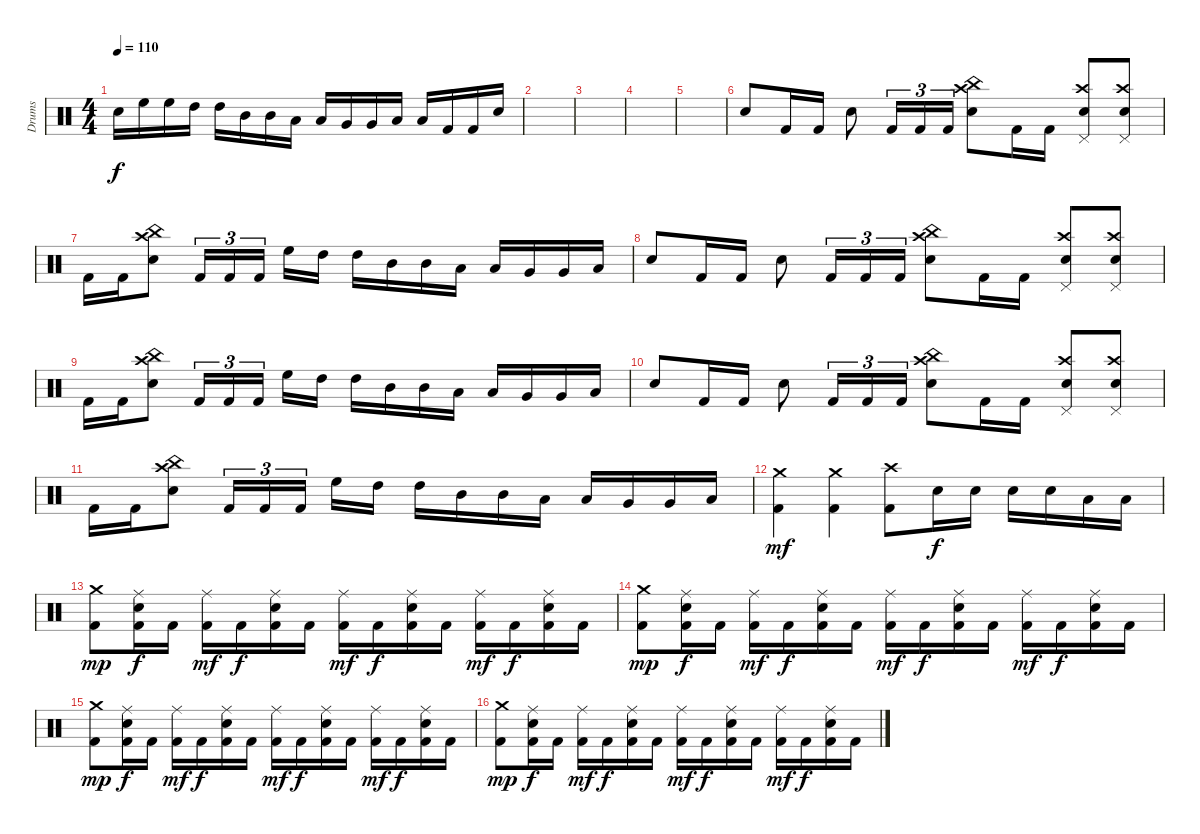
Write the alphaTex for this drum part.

\track ("Drums" "Drums") {instrument percussion}
\staff {score}
\articulation defaults
\ts (4 4)
\tempo 110
\clef neutral
\ks c "Electric Snare (hit)".16{dy f} "High Floor Tom (hit)".16 "High Floor Tom (hit)".16 "High Tom (hit)".16 "High Tom (hit)".16 "Mid Tom (hit)".16 "Mid Tom (hit)".16 "Low Tom (hit)".16 "Low Tom (hit)".16 "Very Low Tom (hit)".16 "Very Low Tom (hit)".16 "Low Floor Tom (hit)".16 "Low Floor Tom (hit)".16 "Kick (hit) 2".16 "Kick (hit) 2".16 "Electric Snare (hit)".16
|
|
|
|
|
"Snare (hit) 2".8 "Kick (hit) 2".16 "Kick (hit) 2".16 "Snare (hit) 2".8 "Kick (hit) 2".16{tu (3 2)} "Kick (hit) 2".16{tu (3 2)} "Kick (hit) 2".16{tu (3 2)} ("Crash high (hit)" "China (hit)" "Snare (hit) 2").8 "Kick (hit) 2".16 "Kick (hit) 2".16 ("Snare (hit) 2" "Crash high (hit)" "Pedal Hi-Hat (hit)").8 ("Snare (hit) 2" "Crash high (hit)" "Pedal Hi-Hat (hit)").8 |
"Kick (hit) 2".16 "Kick (hit) 2".16 ("Crash high (hit)" "Snare (hit) 2" "China (hit)").8 "Kick (hit) 2".16{tu (3 2)} "Kick (hit) 2".16{tu (3 2)} "Kick (hit) 2".16{tu (3 2)} "High Floor Tom (hit)".16 "High Tom (hit)".16 "High Tom (hit)".16 "Mid Tom (hit)".16 "Mid Tom (hit)".16 "Low Tom (hit)".16 "Low Tom (hit)".16 "Very Low Tom (hit)".16 "Very Low Tom (hit)".16 "Low Floor Tom (hit)".16 |
"Snare (hit) 2".8 "Kick (hit) 2".16 "Kick (hit) 2".16 "Snare (hit) 2".8 "Kick (hit) 2".16{tu (3 2)} "Kick (hit) 2".16{tu (3 2)} "Kick (hit) 2".16{tu (3 2)} ("Crash high (hit)" "China (hit)" "Snare (hit) 2").8 "Kick (hit) 2".16 "Kick (hit) 2".16 ("Snare (hit) 2" "Crash high (hit)" "Pedal Hi-Hat (hit)").8 ("Snare (hit) 2" "Crash high (hit)" "Pedal Hi-Hat (hit)").8 |
"Kick (hit) 2".16 "Kick (hit) 2".16 ("Crash high (hit)" "Snare (hit) 2" "China (hit)").8 "Kick (hit) 2".16{tu (3 2)} "Kick (hit) 2".16{tu (3 2)} "Kick (hit) 2".16{tu (3 2)} "High Floor Tom (hit)".16 "High Tom (hit)".16 "High Tom (hit)".16 "Mid Tom (hit)".16 "Mid Tom (hit)".16 "Low Tom (hit)".16 "Low Tom (hit)".16 "Very Low Tom (hit)".16 "Very Low Tom (hit)".16 "Low Floor Tom (hit)".16 |
"Snare (hit) 2".8 "Kick (hit) 2".16 "Kick (hit) 2".16 "Snare (hit) 2".8 "Kick (hit) 2".16{tu (3 2)} "Kick (hit) 2".16{tu (3 2)} "Kick (hit) 2".16{tu (3 2)} ("Crash high (hit)" "China (hit)" "Snare (hit) 2").8 "Kick (hit) 2".16 "Kick (hit) 2".16 ("Snare (hit) 2" "Crash high (hit)" "Pedal Hi-Hat (hit)").8 ("Snare (hit) 2" "Crash high (hit)" "Pedal Hi-Hat (hit)").8 |
"Kick (hit) 2".16 "Kick (hit) 2".16 ("Crash high (hit)" "Snare (hit) 2" "China (hit)").8 "Kick (hit) 2".16{tu (3 2)} "Kick (hit) 2".16{tu (3 2)} "Kick (hit) 2".16{tu (3 2)} "High Floor Tom (hit)".16 "High Tom (hit)".16 "High Tom (hit)".16 "Mid Tom (hit)".16 "Mid Tom (hit)".16 "Low Tom (hit)".16 "Low Tom (hit)".16 "Very Low Tom (hit)".16 "Very Low Tom (hit)".16 "Low Floor Tom (hit)".16 |
("Crash medium (hit)" "Kick (hit) 2").4{dy mf} ("Crash medium (hit)" "Kick (hit) 2").4 ("Crash high (hit)" "Kick (hit) 2").8 "Electric Snare (hit)".16{dy f} "Electric Snare (hit)".16 "Electric Snare (hit)".16 "Electric Snare (hit)".16 "Low Tom (hit)".16 "Low Tom (hit)".16 |
("Crash medium (hit)" "Kick (hit) 2").8{dy mp} ("Ride (middle)" "Electric Snare (hit)" "Kick (hit) 2").16{dy f} "Kick (hit) 2".16 ("Ride (middle)" "Kick (hit) 2").16{dy mf} "Kick (hit) 2".16{dy f} ("Ride (middle)" "Electric Snare (hit)" "Kick (hit) 2").16 "Kick (hit) 2".16 ("Ride (middle)" "Kick (hit) 2").16{dy mf} "Kick (hit) 2".16{dy f} ("Ride (middle)" "Electric Snare (hit)" "Kick (hit) 2").16 "Kick (hit) 2".16 ("Ride (middle)" "Kick (hit) 2").16{dy mf} "Kick (hit) 2".16{dy f} ("Ride (middle)" "Electric Snare (hit)" "Kick (hit) 2").16 "Kick (hit) 2".16 |
("Crash medium (hit)" "Kick (hit) 2").8{dy mp} ("Ride (middle)" "Electric Snare (hit)" "Kick (hit) 2").16{dy f} "Kick (hit) 2".16 ("Ride (middle)" "Kick (hit) 2").16{dy mf} "Kick (hit) 2".16{dy f} ("Ride (middle)" "Electric Snare (hit)" "Kick (hit) 2").16 "Kick (hit) 2".16 ("Ride (middle)" "Kick (hit) 2").16{dy mf} "Kick (hit) 2".16{dy f} ("Ride (middle)" "Electric Snare (hit)" "Kick (hit) 2").16 "Kick (hit) 2".16 ("Ride (middle)" "Kick (hit) 2").16{dy mf} "Kick (hit) 2".16{dy f} ("Ride (middle)" "Electric Snare (hit)" "Kick (hit) 2").16 "Kick (hit) 2".16 |
("Crash medium (hit)" "Kick (hit) 2").8{dy mp} ("Ride (middle)" "Electric Snare (hit)" "Kick (hit) 2").16{dy f} "Kick (hit) 2".16 ("Ride (middle)" "Kick (hit) 2").16{dy mf} "Kick (hit) 2".16{dy f} ("Ride (middle)" "Electric Snare (hit)" "Kick (hit) 2").16 "Kick (hit) 2".16 ("Ride (middle)" "Kick (hit) 2").16{dy mf} "Kick (hit) 2".16{dy f} ("Ride (middle)" "Electric Snare (hit)" "Kick (hit) 2").16 "Kick (hit) 2".16 ("Ride (middle)" "Kick (hit) 2").16{dy mf} "Kick (hit) 2".16{dy f} ("Ride (middle)" "Electric Snare (hit)" "Kick (hit) 2").16 "Kick (hit) 2".16 |
("Crash medium (hit)" "Kick (hit) 2").8{dy mp} ("Ride (middle)" "Electric Snare (hit)" "Kick (hit) 2").16{dy f} "Kick (hit) 2".16 ("Ride (middle)" "Kick (hit) 2").16{dy mf} "Kick (hit) 2".16{dy f} ("Ride (middle)" "Electric Snare (hit)" "Kick (hit) 2").16 "Kick (hit) 2".16 ("Ride (middle)" "Kick (hit) 2").16{dy mf} "Kick (hit) 2".16{dy f} ("Ride (middle)" "Electric Snare (hit)" "Kick (hit) 2").16 "Kick (hit) 2".16 ("Ride (middle)" "Kick (hit) 2").16{dy mf} "Kick (hit) 2".16{dy f} ("Ride (middle)" "Electric Snare (hit)" "Kick (hit) 2").16 "Kick (hit) 2".16
